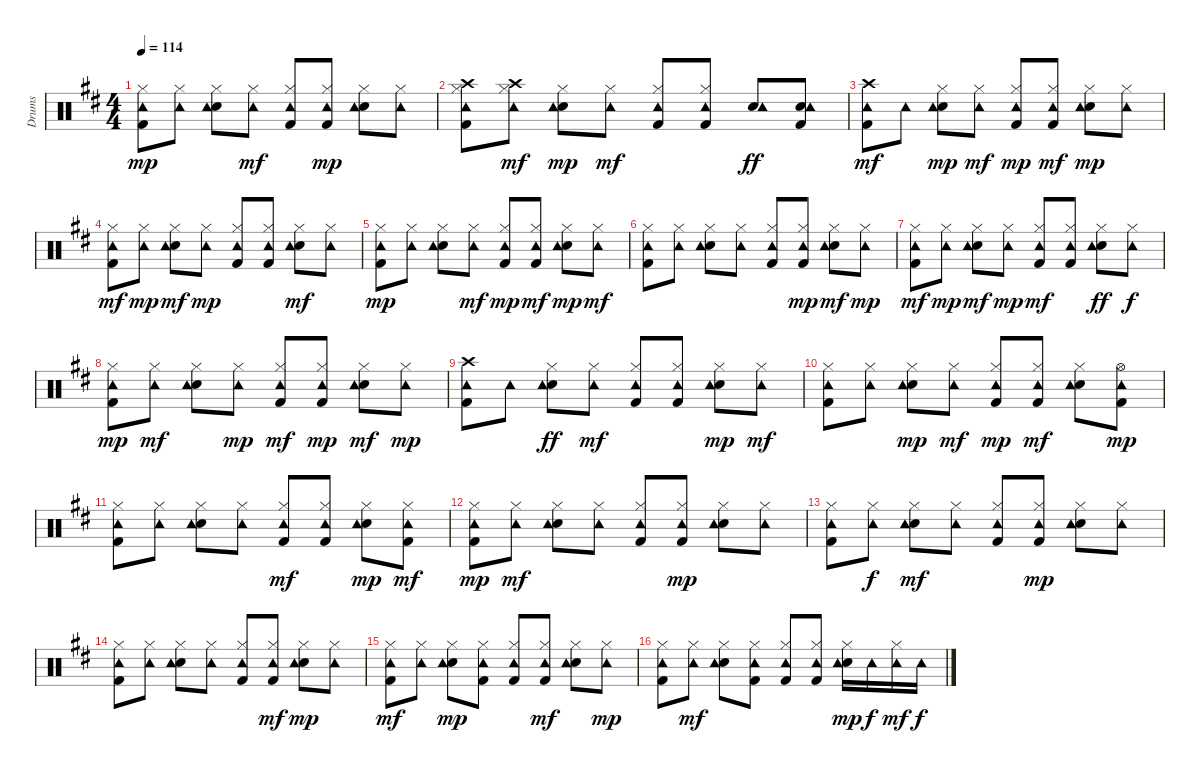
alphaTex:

\track ("Drums" "Drums") {instrument percussion}
\staff {score}
\articulation defaults
\ts (4 4)
\tempo 114
\clef neutral
\ks d
("Kick (hit) 2" "Hi-Hat (closed)" "Tambourine (hit)").8{dy mp} ("Hi-Hat (closed)" "Tambourine (hit)").8 ("Snare (hit) 2" "Hi-Hat (closed)" "Tambourine (hit)").8 ("Hi-Hat (closed)" "Tambourine (hit)").8{dy mf} ("Kick (hit) 2" "Hi-Hat (closed)" "Tambourine (hit)").8 ("Kick (hit) 2" "Hi-Hat (closed)" "Tambourine (hit)").8{dy mp} ("Snare (hit) 2" "Hi-Hat (closed)" "Tambourine (hit)").8 ("Hi-Hat (closed)" "Tambourine (hit)").8 |
("Kick (hit) 2" "Hi-Hat (closed)" "Crash high (hit)" "Tambourine (hit)").8 ("Hi-Hat (closed)" "Crash high (hit)" "Tambourine (hit)").8{dy mf} ("Snare (hit) 2" "Hi-Hat (closed)" "Tambourine (hit)").8{dy mp} ("Hi-Hat (closed)" "Tambourine (hit)").8{dy mf} ("Kick (hit) 2" "Hi-Hat (closed)" "Tambourine (hit)").8 ("Kick (hit) 2" "Hi-Hat (closed)" "Tambourine (hit)").8 ("Snare (hit) 2" "Tambourine (hit)").8{dy ff} ("Kick (hit) 2" "Snare (hit) 2" "Tambourine (hit)").8 |
("Kick (hit) 2" "Crash high (hit)" "Tambourine (hit)").8{dy mf} "Tambourine (hit)".8 ("Snare (hit) 2" "Hi-Hat (closed)" "Tambourine (hit)").8{dy mp} ("Hi-Hat (closed)" "Tambourine (hit)").8{dy mf} ("Kick (hit) 2" "Hi-Hat (closed)" "Tambourine (hit)").8{dy mp} ("Kick (hit) 2" "Hi-Hat (closed)" "Tambourine (hit)").8{dy mf} ("Snare (hit) 2" "Hi-Hat (closed)" "Tambourine (hit)").8{dy mp} ("Hi-Hat (closed)" "Tambourine (hit)").8 |
("Kick (hit) 2" "Hi-Hat (closed)" "Tambourine (hit)").8{dy mf} ("Hi-Hat (closed)" "Tambourine (hit)").8{dy mp} ("Snare (hit) 2" "Hi-Hat (closed)" "Tambourine (hit)").8{dy mf} ("Hi-Hat (closed)" "Tambourine (hit)").8{dy mp} ("Kick (hit) 2" "Hi-Hat (closed)" "Tambourine (hit)").8 ("Kick (hit) 2" "Hi-Hat (closed)" "Tambourine (hit)").8 ("Snare (hit) 2" "Hi-Hat (closed)" "Tambourine (hit)").8{dy mf} ("Hi-Hat (closed)" "Tambourine (hit)").8 |
("Kick (hit) 2" "Hi-Hat (closed)" "Tambourine (hit)").8{dy mp} ("Hi-Hat (closed)" "Tambourine (hit)").8 ("Snare (hit) 2" "Hi-Hat (closed)" "Tambourine (hit)").8 ("Hi-Hat (closed)" "Tambourine (hit)").8{dy mf} ("Kick (hit) 2" "Hi-Hat (closed)" "Tambourine (hit)").8{dy mp} ("Kick (hit) 2" "Hi-Hat (closed)" "Tambourine (hit)").8{dy mf} ("Snare (hit) 2" "Hi-Hat (closed)" "Tambourine (hit)").8{dy mp} ("Hi-Hat (closed)" "Tambourine (hit)").8{dy mf} |
("Kick (hit) 2" "Hi-Hat (closed)" "Tambourine (hit)").8 ("Hi-Hat (closed)" "Tambourine (hit)").8 ("Snare (hit) 2" "Hi-Hat (closed)" "Tambourine (hit)").8 ("Hi-Hat (closed)" "Tambourine (hit)").8 ("Kick (hit) 2" "Hi-Hat (closed)" "Tambourine (hit)").8 ("Kick (hit) 2" "Hi-Hat (closed)" "Tambourine (hit)").8{dy mp} ("Snare (hit) 2" "Hi-Hat (closed)" "Tambourine (hit)").8{dy mf} ("Hi-Hat (closed)" "Tambourine (hit)").8{dy mp} |
("Kick (hit) 2" "Hi-Hat (closed)" "Tambourine (hit)").8{dy mf} ("Hi-Hat (closed)" "Tambourine (hit)").8{dy mp} ("Snare (hit) 2" "Hi-Hat (closed)" "Tambourine (hit)").8{dy mf} ("Hi-Hat (closed)" "Tambourine (hit)").8{dy mp} ("Kick (hit) 2" "Hi-Hat (closed)" "Tambourine (hit)").8{dy mf} ("Kick (hit) 2" "Hi-Hat (closed)" "Tambourine (hit)").8 ("Snare (hit) 2" "Hi-Hat (closed)" "Tambourine (hit)").8{dy ff} ("Hi-Hat (closed)" "Tambourine (hit)").8{dy f} |
("Kick (hit) 2" "Hi-Hat (closed)" "Tambourine (hit)").8{dy mp} ("Hi-Hat (closed)" "Tambourine (hit)").8{dy mf} ("Snare (hit) 2" "Hi-Hat (closed)" "Tambourine (hit)").8 ("Hi-Hat (closed)" "Tambourine (hit)").8{dy mp} ("Kick (hit) 2" "Hi-Hat (closed)" "Tambourine (hit)").8{dy mf} ("Kick (hit) 2" "Hi-Hat (closed)" "Tambourine (hit)").8{dy mp} ("Snare (hit) 2" "Hi-Hat (closed)" "Tambourine (hit)").8{dy mf} ("Hi-Hat (closed)" "Tambourine (hit)").8{dy mp} |
("Kick (hit) 2" "Crash high (hit)" "Tambourine (hit)").8 "Tambourine (hit)".8 ("Snare (hit) 2" "Hi-Hat (closed)" "Tambourine (hit)").8{dy ff} ("Hi-Hat (closed)" "Tambourine (hit)").8{dy mf} ("Kick (hit) 2" "Hi-Hat (closed)" "Tambourine (hit)").8 ("Kick (hit) 2" "Hi-Hat (closed)" "Tambourine (hit)").8 ("Snare (hit) 2" "Hi-Hat (closed)" "Tambourine (hit)").8{dy mp} ("Hi-Hat (closed)" "Tambourine (hit)").8{dy mf} |
("Kick (hit) 2" "Hi-Hat (closed)" "Tambourine (hit)").8 ("Hi-Hat (closed)" "Tambourine (hit)").8 ("Snare (hit) 2" "Hi-Hat (closed)" "Tambourine (hit)").8{dy mp} ("Hi-Hat (closed)" "Tambourine (hit)").8{dy mf} ("Kick (hit) 2" "Hi-Hat (closed)" "Tambourine (hit)").8{dy mp} ("Kick (hit) 2" "Hi-Hat (closed)" "Tambourine (hit)").8{dy mf} ("Snare (hit) 2" "Hi-Hat (closed)" "Tambourine (hit)").8 ("Kick (hit) 2" "Hi-Hat (open)" "Tambourine (hit)").8{dy mp} |
("Kick (hit) 2" "Hi-Hat (closed)" "Tambourine (hit)").8 ("Hi-Hat (closed)" "Tambourine (hit)").8 ("Snare (hit) 2" "Hi-Hat (closed)" "Tambourine (hit)").8 ("Hi-Hat (closed)" "Tambourine (hit)").8 ("Kick (hit) 2" "Hi-Hat (closed)" "Tambourine (hit)").8{dy mf} ("Kick (hit) 2" "Hi-Hat (closed)" "Tambourine (hit)").8 ("Snare (hit) 2" "Hi-Hat (closed)" "Tambourine (hit)").8{dy mp} ("Kick (hit) 2" "Hi-Hat (closed)" "Tambourine (hit)").8{dy mf} |
("Kick (hit) 2" "Hi-Hat (closed)" "Tambourine (hit)").8{dy mp} ("Hi-Hat (closed)" "Tambourine (hit)").8{dy mf} ("Snare (hit) 2" "Hi-Hat (closed)" "Tambourine (hit)").8 ("Hi-Hat (closed)" "Tambourine (hit)").8 ("Kick (hit) 2" "Hi-Hat (closed)" "Tambourine (hit)").8 ("Kick (hit) 2" "Hi-Hat (closed)" "Tambourine (hit)").8{dy mp} ("Snare (hit) 2" "Hi-Hat (closed)" "Tambourine (hit)").8 ("Hi-Hat (closed)" "Tambourine (hit)").8 |
("Kick (hit) 2" "Hi-Hat (closed)" "Tambourine (hit)").8 ("Hi-Hat (closed)" "Tambourine (hit)").8{dy f} ("Snare (hit) 2" "Hi-Hat (closed)" "Tambourine (hit)").8{dy mf} ("Hi-Hat (closed)" "Tambourine (hit)").8 ("Kick (hit) 2" "Hi-Hat (closed)" "Tambourine (hit)").8 ("Kick (hit) 2" "Hi-Hat (closed)" "Tambourine (hit)").8{dy mp} ("Snare (hit) 2" "Hi-Hat (closed)" "Tambourine (hit)").8 ("Hi-Hat (closed)" "Tambourine (hit)").8 |
("Kick (hit) 2" "Hi-Hat (closed)" "Tambourine (hit)").8 ("Hi-Hat (closed)" "Tambourine (hit)").8 ("Snare (hit) 2" "Hi-Hat (closed)" "Tambourine (hit)").8 ("Hi-Hat (closed)" "Tambourine (hit)").8 ("Kick (hit) 2" "Hi-Hat (closed)" "Tambourine (hit)").8 ("Kick (hit) 2" "Hi-Hat (closed)" "Tambourine (hit)").8{dy mf} ("Snare (hit) 2" "Hi-Hat (closed)" "Tambourine (hit)").8{dy mp} ("Hi-Hat (closed)" "Tambourine (hit)").8 |
("Kick (hit) 2" "Hi-Hat (closed)" "Tambourine (hit)").8{dy mf} ("Hi-Hat (closed)" "Tambourine (hit)").8 ("Snare (hit) 2" "Hi-Hat (closed)" "Tambourine (hit)").8{dy mp} ("Kick (hit) 2" "Hi-Hat (closed)" "Tambourine (hit)").8 ("Kick (hit) 2" "Hi-Hat (closed)" "Tambourine (hit)").8 ("Kick (hit) 2" "Hi-Hat (closed)" "Tambourine (hit)").8{dy mf} ("Snare (hit) 2" "Hi-Hat (closed)" "Tambourine (hit)").8 ("Hi-Hat (closed)" "Tambourine (hit)").8{dy mp} |
("Kick (hit) 2" "Hi-Hat (closed)" "Tambourine (hit)").8 ("Hi-Hat (closed)" "Tambourine (hit)").8{dy mf} ("Snare (hit) 2" "Hi-Hat (closed)" "Tambourine (hit)").8 ("Kick (hit) 2" "Hi-Hat (closed)" "Tambourine (hit)").8 ("Kick (hit) 2" "Hi-Hat (closed)" "Tambourine (hit)").8 ("Kick (hit) 2" "Hi-Hat (closed)" "Tambourine (hit)").8 ("Snare (hit) 2" "Hi-Hat (closed)" "Tambourine (hit)").16{dy mp} "Tambourine (hit)".16{dy f} ("Hi-Hat (closed)" "Tambourine (hit)").16{dy mf} "Tambourine (hit)".16{dy f}
